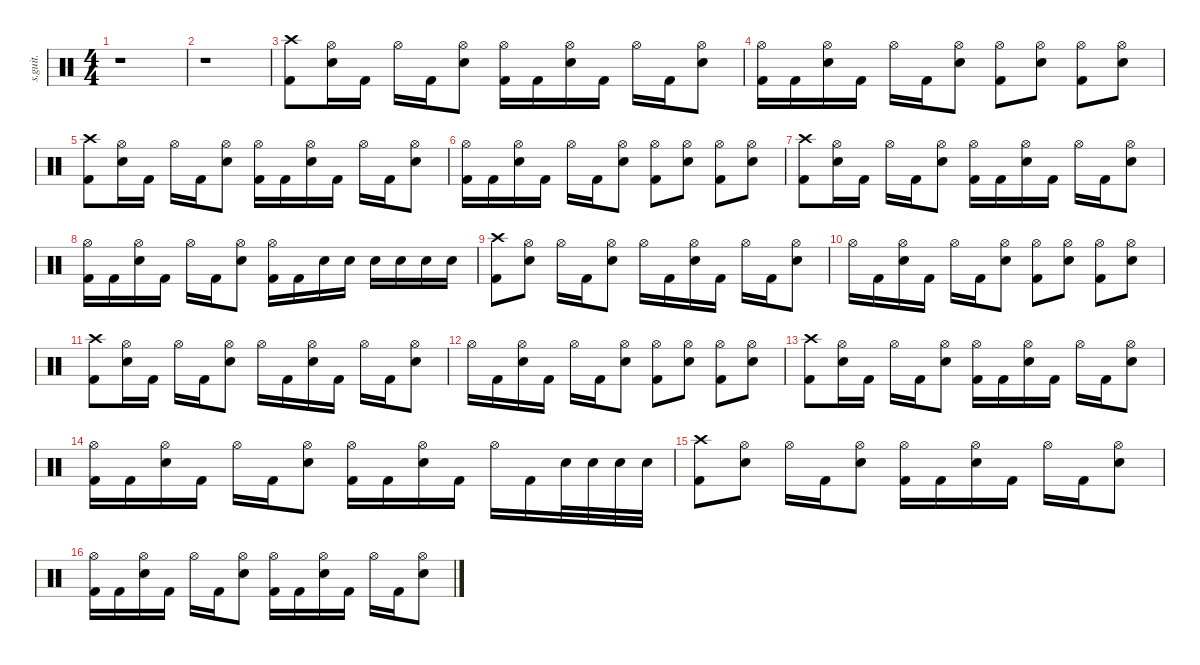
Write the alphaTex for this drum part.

\defaultSystemsLayout 4
\hideDynamics
\bracketExtendMode nobrackets
\track ("" "s.guit.") {instrument percussion}
\staff {score}
\articulation defaults
\ts (4 4)
\beaming (8 2 2 2 2)
\tempo (150 hide)
\clef neutral
\ks c
r.1{dy f} |
r.1 |
("Crash high (hit)" "Kick (hit) 2").8 ("Hi-Hat (open)" "Snare (hit) 2").16 "Kick (hit) 2".16 "Hi-Hat (open)".16 "Kick (hit) 2".16 ("Hi-Hat (open)" "Snare (hit) 2").8 ("Hi-Hat (open)" "Kick (hit) 2").16 "Kick (hit) 2".16 ("Hi-Hat (open)" "Snare (hit) 2").16 "Kick (hit) 2".16 "Hi-Hat (open)".16 "Kick (hit) 2".16 ("Hi-Hat (open)" "Snare (hit) 2").8 |
("Hi-Hat (open)" "Kick (hit) 2").16 "Kick (hit) 2".16 ("Hi-Hat (open)" "Snare (hit) 2").16 "Kick (hit) 2".16 "Hi-Hat (open)".16 "Kick (hit) 2".16 ("Hi-Hat (open)" "Snare (hit) 2").8 ("Hi-Hat (open)" "Kick (hit) 2").8 ("Hi-Hat (open)" "Snare (hit) 2").8 ("Hi-Hat (open)" "Kick (hit) 2").8 ("Hi-Hat (open)" "Snare (hit) 2").8 |
("Crash high (hit)" "Kick (hit) 2").8 ("Hi-Hat (open)" "Snare (hit) 2").16 "Kick (hit) 2".16 "Hi-Hat (open)".16 "Kick (hit) 2".16 ("Hi-Hat (open)" "Snare (hit) 2").8 ("Hi-Hat (open)" "Kick (hit) 2").16 "Kick (hit) 2".16 ("Hi-Hat (open)" "Snare (hit) 2").16 "Kick (hit) 2".16 "Hi-Hat (open)".16 "Kick (hit) 2".16 ("Hi-Hat (open)" "Snare (hit) 2").8 |
("Hi-Hat (open)" "Kick (hit) 2").16 "Kick (hit) 2".16 ("Hi-Hat (open)" "Snare (hit) 2").16 "Kick (hit) 2".16 "Hi-Hat (open)".16 "Kick (hit) 2".16 ("Hi-Hat (open)" "Snare (hit) 2").8 ("Hi-Hat (open)" "Kick (hit) 2").8 ("Hi-Hat (open)" "Snare (hit) 2").8 ("Hi-Hat (open)" "Kick (hit) 2").8 ("Hi-Hat (open)" "Snare (hit) 2").8 |
("Crash high (hit)" "Kick (hit) 2").8 ("Hi-Hat (open)" "Snare (hit) 2").16 "Kick (hit) 2".16 "Hi-Hat (open)".16 "Kick (hit) 2".16 ("Hi-Hat (open)" "Snare (hit) 2").8 ("Hi-Hat (open)" "Kick (hit) 2").16 "Kick (hit) 2".16 ("Hi-Hat (open)" "Snare (hit) 2").16 "Kick (hit) 2".16 "Hi-Hat (open)".16 "Kick (hit) 2".16 ("Hi-Hat (open)" "Snare (hit) 2").8 |
("Hi-Hat (open)" "Kick (hit) 2").16 "Kick (hit) 2".16 ("Hi-Hat (open)" "Snare (hit) 2").16 "Kick (hit) 2".16 "Hi-Hat (open)".16 "Kick (hit) 2".16 ("Hi-Hat (open)" "Snare (hit) 2").8 ("Hi-Hat (open)" "Kick (hit) 2").16 "Kick (hit) 2".16 "Snare (hit) 2".16 "Snare (hit) 2".16 "Snare (hit) 2".16 "Snare (hit) 2".16 "Snare (hit) 2".16 "Snare (hit) 2".16 |
("Crash high (hit)" "Kick (hit) 2").8 ("Hi-Hat (open)" "Snare (hit) 2").8 "Hi-Hat (open)".16 "Kick (hit) 2".16 ("Hi-Hat (open)" "Snare (hit) 2").8 "Hi-Hat (open)".16 "Kick (hit) 2".16 ("Hi-Hat (open)" "Snare (hit) 2").16 "Kick (hit) 2".16 "Hi-Hat (open)".16 "Kick (hit) 2".16 ("Hi-Hat (open)" "Snare (hit) 2").8 |
"Hi-Hat (open)".16 "Kick (hit) 2".16 ("Hi-Hat (open)" "Snare (hit) 2").16 "Kick (hit) 2".16 "Hi-Hat (open)".16 "Kick (hit) 2".16 ("Hi-Hat (open)" "Snare (hit) 2").8 ("Hi-Hat (open)" "Kick (hit) 2").8 ("Hi-Hat (open)" "Snare (hit) 2").8 ("Hi-Hat (open)" "Kick (hit) 2").8 ("Hi-Hat (open)" "Snare (hit) 2").8 |
("Crash high (hit)" "Kick (hit) 2").8 ("Hi-Hat (open)" "Snare (hit) 2").16 "Kick (hit) 2".16 "Hi-Hat (open)".16 "Kick (hit) 2".16 ("Hi-Hat (open)" "Snare (hit) 2").8 "Hi-Hat (open)".16 "Kick (hit) 2".16 ("Hi-Hat (open)" "Snare (hit) 2").16 "Kick (hit) 2".16 "Hi-Hat (open)".16 "Kick (hit) 2".16 ("Hi-Hat (open)" "Snare (hit) 2").8 |
"Hi-Hat (open)".16 "Kick (hit) 2".16 ("Hi-Hat (open)" "Snare (hit) 2").16 "Kick (hit) 2".16 "Hi-Hat (open)".16 "Kick (hit) 2".16 ("Hi-Hat (open)" "Snare (hit) 2").8 ("Hi-Hat (open)" "Kick (hit) 2").8 ("Hi-Hat (open)" "Snare (hit) 2").8 ("Hi-Hat (open)" "Kick (hit) 2").8 ("Hi-Hat (open)" "Snare (hit) 2").8 |
("Crash high (hit)" "Kick (hit) 2").8 ("Hi-Hat (open)" "Snare (hit) 2").16 "Kick (hit) 2".16 "Hi-Hat (open)".16 "Kick (hit) 2".16 ("Hi-Hat (open)" "Snare (hit) 2").8 ("Hi-Hat (open)" "Kick (hit) 2").16 "Kick (hit) 2".16 ("Hi-Hat (open)" "Snare (hit) 2").16 "Kick (hit) 2".16 "Hi-Hat (open)".16 "Kick (hit) 2".16 ("Hi-Hat (open)" "Snare (hit) 2").8 |
("Hi-Hat (open)" "Kick (hit) 2").16 "Kick (hit) 2".16 ("Hi-Hat (open)" "Snare (hit) 2").16 "Kick (hit) 2".16 "Hi-Hat (open)".16 "Kick (hit) 2".16 ("Hi-Hat (open)" "Snare (hit) 2").8 ("Hi-Hat (open)" "Kick (hit) 2").16 "Kick (hit) 2".16 ("Hi-Hat (open)" "Snare (hit) 2").16 "Kick (hit) 2".16 "Hi-Hat (open)".16 "Kick (hit) 2".16 "Snare (hit) 2".32 "Snare (hit) 2".32 "Snare (hit) 2".32 "Snare (hit) 2".32 |
("Crash high (hit)" "Kick (hit) 2").8 ("Hi-Hat (open)" "Snare (hit) 2").8 "Hi-Hat (open)".16 "Kick (hit) 2".16 ("Hi-Hat (open)" "Snare (hit) 2").8 ("Hi-Hat (open)" "Kick (hit) 2").16 "Kick (hit) 2".16 ("Hi-Hat (open)" "Snare (hit) 2").16 "Kick (hit) 2".16 "Hi-Hat (open)".16 "Kick (hit) 2".16 ("Hi-Hat (open)" "Snare (hit) 2").8 |
("Hi-Hat (open)" "Kick (hit) 2").16 "Kick (hit) 2".16 ("Hi-Hat (open)" "Snare (hit) 2").16 "Kick (hit) 2".16 "Hi-Hat (open)".16 "Kick (hit) 2".16 ("Hi-Hat (open)" "Snare (hit) 2").8 ("Hi-Hat (open)" "Kick (hit) 2").16 "Kick (hit) 2".16 ("Hi-Hat (open)" "Snare (hit) 2").16 "Kick (hit) 2".16 "Hi-Hat (open)".16 "Kick (hit) 2".16 ("Hi-Hat (open)" "Snare (hit) 2").8
